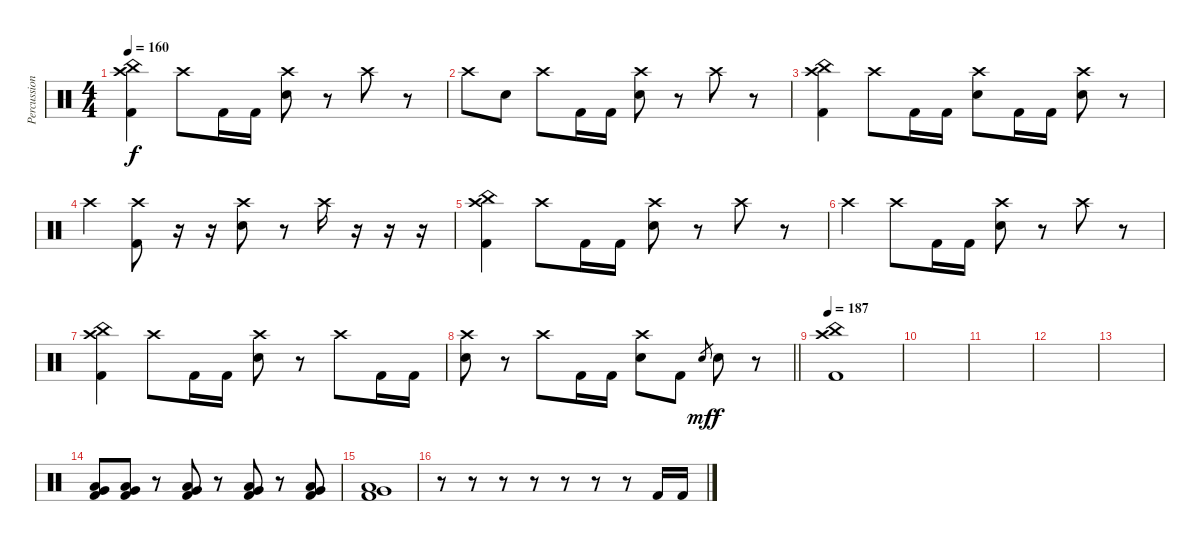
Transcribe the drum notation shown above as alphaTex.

\track ("Percussion" "Percussion") {instrument percussion}
\staff {score}
\articulation defaults
\ts (4 4)
\tempo 160
\clef neutral
\ks c
("Crash high (hit)" "China (hit)" "Kick (hit) 2").4{dy f} "Crash high (hit)".8 "Kick (hit) 2".16 "Kick (hit) 2".16 ("Crash high (hit)" "Snare (hit) 2").8 r.8 "Crash high (hit)".8 r.8 |
"Crash high (hit)".8 "Snare (hit) 2".8 "Crash high (hit)".8 "Kick (hit) 2".16 "Kick (hit) 2".16 ("Crash high (hit)" "Snare (hit) 2").8 r.8 "Crash high (hit)".8 r.8 |
("Crash high (hit)" "China (hit)" "Kick (hit) 2").4 "Crash high (hit)".8 "Kick (hit) 2".16 "Kick (hit) 2".16 ("Crash high (hit)" "Snare (hit) 2").8 "Kick (hit) 2".16 "Kick (hit) 2".16 ("Crash high (hit)" "Snare (hit) 2").8 r.8 |
"Crash high (hit)".4 ("Crash high (hit)" "Kick (hit) 2").8 r.16 r.16 ("Crash high (hit)" "Snare (hit) 2").8 r.8 "Crash high (hit)".16 r.16 r.16 r.16 |
("Crash high (hit)" "China (hit)" "Kick (hit) 2").4 "Crash high (hit)".8 "Kick (hit) 2".16 "Kick (hit) 2".16 ("Crash high (hit)" "Snare (hit) 2").8 r.8 "Crash high (hit)".8 r.8 |
"Crash high (hit)".4 "Crash high (hit)".8 "Kick (hit) 2".16 "Kick (hit) 2".16 ("Crash high (hit)" "Snare (hit) 2").8 r.8 "Crash high (hit)".8 r.8 |
("Crash high (hit)" "China (hit)" "Kick (hit) 2").4 "Crash high (hit)".8 "Kick (hit) 2".16 "Kick (hit) 2".16 ("Crash high (hit)" "Snare (hit) 2").8 r.8 "Crash high (hit)".8 "Kick (hit) 2".16 "Kick (hit) 2".16 |
\barLineRight lightlight
("Crash high (hit)" "Snare (hit) 2").8 r.8 "Crash high (hit)".8 "Kick (hit) 2".16 "Kick (hit) 2".16 ("Crash high (hit)" "Snare (hit) 2").8 "Kick (hit) 2".8 "Snare (hit) 2".8{gr dy mf} "Snare (hit) 2".8{dy f} r.8 |
\section ("" "")
\tempo 187
("Crash high (hit)" "China (hit)" "Kick (hit) 2").1 |
|
|
|
|
("Low Tom (hit)" "Very Low Tom (hit)" "Kick (hit) 2").8 ("Low Tom (hit)" "Very Low Tom (hit)" "Kick (hit) 2").8 r.8 ("Low Tom (hit)" "Very Low Tom (hit)" "Kick (hit) 2").8 r.8 ("Low Tom (hit)" "Very Low Tom (hit)" "Kick (hit) 2").8 r.8 ("Low Tom (hit)" "Very Low Tom (hit)" "Kick (hit) 2").8 |
("Low Tom (hit)" "Very Low Tom (hit)" "Kick (hit) 2").1 |
r.8 r.8 r.8 r.8 r.8 r.8 r.8 "Kick (hit) 2".16 "Kick (hit) 2".16
